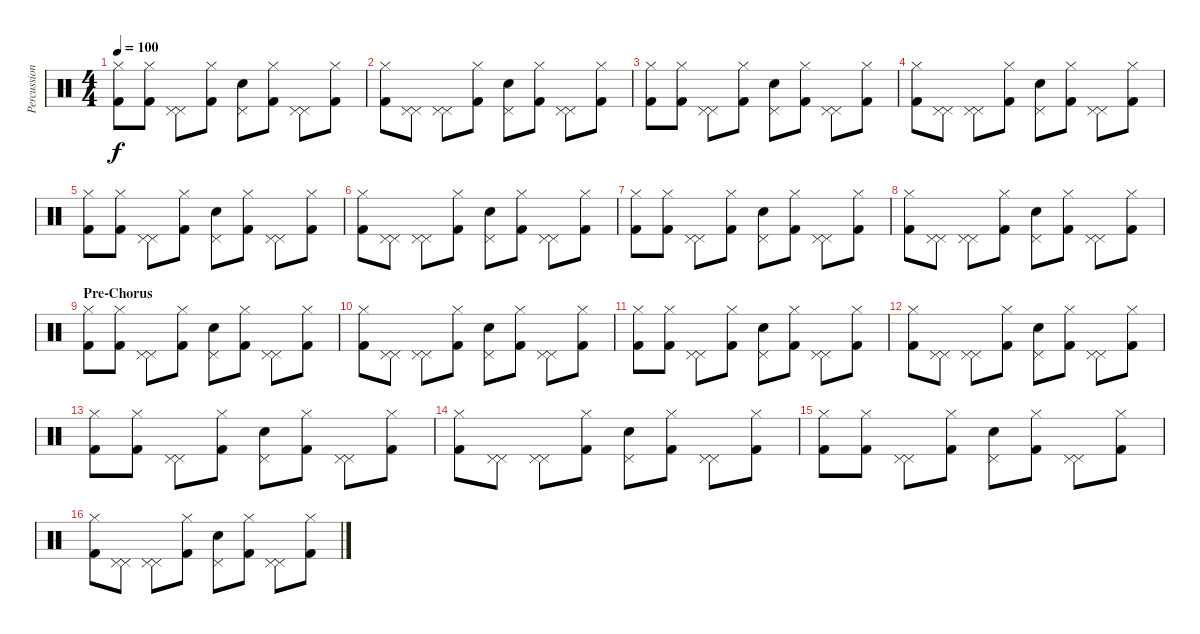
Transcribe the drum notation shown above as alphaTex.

\track ("Percussion" "Percussion") {instrument percussion}
\staff {score}
\articulation defaults
\ts (4 4)
\tempo 100
\clef neutral
\ks c
("Hi-Hat (closed)" "Kick (hit) 2").8{dy f} ("Hi-Hat (closed)" "Kick (hit) 2").8 ("Pedal Hi-Hat (hit)" "Pedal Hi-Hat (hit)").8 ("Hi-Hat (closed)" "Kick (hit) 2").8 ("Snare (hit) 2" "Pedal Hi-Hat (hit)").8 ("Hi-Hat (closed)" "Kick (hit) 2").8 ("Pedal Hi-Hat (hit)" "Pedal Hi-Hat (hit)").8 ("Hi-Hat (closed)" "Kick (hit) 2").8 |
("Hi-Hat (closed)" "Kick (hit) 2").8 ("Pedal Hi-Hat (hit)" "Pedal Hi-Hat (hit)").8 ("Pedal Hi-Hat (hit)" "Pedal Hi-Hat (hit)").8 ("Hi-Hat (closed)" "Kick (hit) 2").8 ("Snare (hit) 2" "Pedal Hi-Hat (hit)").8 ("Hi-Hat (closed)" "Kick (hit) 2").8 ("Pedal Hi-Hat (hit)" "Pedal Hi-Hat (hit)").8 ("Hi-Hat (closed)" "Kick (hit) 2").8 |
("Hi-Hat (closed)" "Kick (hit) 2").8 ("Hi-Hat (closed)" "Kick (hit) 2").8 ("Pedal Hi-Hat (hit)" "Pedal Hi-Hat (hit)").8 ("Hi-Hat (closed)" "Kick (hit) 2").8 ("Snare (hit) 2" "Pedal Hi-Hat (hit)").8 ("Hi-Hat (closed)" "Kick (hit) 2").8 ("Pedal Hi-Hat (hit)" "Pedal Hi-Hat (hit)").8 ("Hi-Hat (closed)" "Kick (hit) 2").8 |
("Hi-Hat (closed)" "Kick (hit) 2").8 ("Pedal Hi-Hat (hit)" "Pedal Hi-Hat (hit)").8 ("Pedal Hi-Hat (hit)" "Pedal Hi-Hat (hit)").8 ("Hi-Hat (closed)" "Kick (hit) 2").8 ("Snare (hit) 2" "Pedal Hi-Hat (hit)").8 ("Hi-Hat (closed)" "Kick (hit) 2").8 ("Pedal Hi-Hat (hit)" "Pedal Hi-Hat (hit)").8 ("Hi-Hat (closed)" "Kick (hit) 2").8 |
("Hi-Hat (closed)" "Kick (hit) 2").8 ("Hi-Hat (closed)" "Kick (hit) 2").8 ("Pedal Hi-Hat (hit)" "Pedal Hi-Hat (hit)").8 ("Hi-Hat (closed)" "Kick (hit) 2").8 ("Snare (hit) 2" "Pedal Hi-Hat (hit)").8 ("Hi-Hat (closed)" "Kick (hit) 2").8 ("Pedal Hi-Hat (hit)" "Pedal Hi-Hat (hit)").8 ("Hi-Hat (closed)" "Kick (hit) 2").8 |
("Hi-Hat (closed)" "Kick (hit) 2").8 ("Pedal Hi-Hat (hit)" "Pedal Hi-Hat (hit)").8 ("Pedal Hi-Hat (hit)" "Pedal Hi-Hat (hit)").8 ("Hi-Hat (closed)" "Kick (hit) 2").8 ("Snare (hit) 2" "Pedal Hi-Hat (hit)").8 ("Hi-Hat (closed)" "Kick (hit) 2").8 ("Pedal Hi-Hat (hit)" "Pedal Hi-Hat (hit)").8 ("Hi-Hat (closed)" "Kick (hit) 2").8 |
("Hi-Hat (closed)" "Kick (hit) 2").8 ("Hi-Hat (closed)" "Kick (hit) 2").8 ("Pedal Hi-Hat (hit)" "Pedal Hi-Hat (hit)").8 ("Hi-Hat (closed)" "Kick (hit) 2").8 ("Snare (hit) 2" "Pedal Hi-Hat (hit)").8 ("Hi-Hat (closed)" "Kick (hit) 2").8 ("Pedal Hi-Hat (hit)" "Pedal Hi-Hat (hit)").8 ("Hi-Hat (closed)" "Kick (hit) 2").8 |
("Hi-Hat (closed)" "Kick (hit) 2").8 ("Pedal Hi-Hat (hit)" "Pedal Hi-Hat (hit)").8 ("Pedal Hi-Hat (hit)" "Pedal Hi-Hat (hit)").8 ("Hi-Hat (closed)" "Kick (hit) 2").8 ("Snare (hit) 2" "Pedal Hi-Hat (hit)").8 ("Hi-Hat (closed)" "Kick (hit) 2").8 ("Pedal Hi-Hat (hit)" "Pedal Hi-Hat (hit)").8 ("Hi-Hat (closed)" "Kick (hit) 2").8 |
\section ("" "Pre-Chorus")
("Hi-Hat (closed)" "Kick (hit) 2").8 ("Hi-Hat (closed)" "Kick (hit) 2").8 ("Pedal Hi-Hat (hit)" "Pedal Hi-Hat (hit)").8 ("Hi-Hat (closed)" "Kick (hit) 2").8 ("Snare (hit) 2" "Pedal Hi-Hat (hit)").8 ("Hi-Hat (closed)" "Kick (hit) 2").8 ("Pedal Hi-Hat (hit)" "Pedal Hi-Hat (hit)").8 ("Hi-Hat (closed)" "Kick (hit) 2").8 |
("Hi-Hat (closed)" "Kick (hit) 2").8 ("Pedal Hi-Hat (hit)" "Pedal Hi-Hat (hit)").8 ("Pedal Hi-Hat (hit)" "Pedal Hi-Hat (hit)").8 ("Hi-Hat (closed)" "Kick (hit) 2").8 ("Snare (hit) 2" "Pedal Hi-Hat (hit)").8 ("Hi-Hat (closed)" "Kick (hit) 2").8 ("Pedal Hi-Hat (hit)" "Pedal Hi-Hat (hit)").8 ("Hi-Hat (closed)" "Kick (hit) 2").8 |
("Hi-Hat (closed)" "Kick (hit) 2").8 ("Hi-Hat (closed)" "Kick (hit) 2").8 ("Pedal Hi-Hat (hit)" "Pedal Hi-Hat (hit)").8 ("Hi-Hat (closed)" "Kick (hit) 2").8 ("Snare (hit) 2" "Pedal Hi-Hat (hit)").8 ("Hi-Hat (closed)" "Kick (hit) 2").8 ("Pedal Hi-Hat (hit)" "Pedal Hi-Hat (hit)").8 ("Hi-Hat (closed)" "Kick (hit) 2").8 |
("Hi-Hat (closed)" "Kick (hit) 2").8 ("Pedal Hi-Hat (hit)" "Pedal Hi-Hat (hit)").8 ("Pedal Hi-Hat (hit)" "Pedal Hi-Hat (hit)").8 ("Hi-Hat (closed)" "Kick (hit) 2").8 ("Snare (hit) 2" "Pedal Hi-Hat (hit)").8 ("Hi-Hat (closed)" "Kick (hit) 2").8 ("Pedal Hi-Hat (hit)" "Pedal Hi-Hat (hit)").8 ("Hi-Hat (closed)" "Kick (hit) 2").8 |
("Hi-Hat (closed)" "Kick (hit) 2").8 ("Hi-Hat (closed)" "Kick (hit) 2").8 ("Pedal Hi-Hat (hit)" "Pedal Hi-Hat (hit)").8 ("Hi-Hat (closed)" "Kick (hit) 2").8 ("Snare (hit) 2" "Pedal Hi-Hat (hit)").8 ("Hi-Hat (closed)" "Kick (hit) 2").8 ("Pedal Hi-Hat (hit)" "Pedal Hi-Hat (hit)").8 ("Hi-Hat (closed)" "Kick (hit) 2").8 |
("Hi-Hat (closed)" "Kick (hit) 2").8 ("Pedal Hi-Hat (hit)" "Pedal Hi-Hat (hit)").8 ("Pedal Hi-Hat (hit)" "Pedal Hi-Hat (hit)").8 ("Hi-Hat (closed)" "Kick (hit) 2").8 ("Snare (hit) 2" "Pedal Hi-Hat (hit)").8 ("Hi-Hat (closed)" "Kick (hit) 2").8 ("Pedal Hi-Hat (hit)" "Pedal Hi-Hat (hit)").8 ("Hi-Hat (closed)" "Kick (hit) 2").8 |
("Hi-Hat (closed)" "Kick (hit) 2").8 ("Hi-Hat (closed)" "Kick (hit) 2").8 ("Pedal Hi-Hat (hit)" "Pedal Hi-Hat (hit)").8 ("Hi-Hat (closed)" "Kick (hit) 2").8 ("Snare (hit) 2" "Pedal Hi-Hat (hit)").8 ("Hi-Hat (closed)" "Kick (hit) 2").8 ("Pedal Hi-Hat (hit)" "Pedal Hi-Hat (hit)").8 ("Hi-Hat (closed)" "Kick (hit) 2").8 |
("Hi-Hat (closed)" "Kick (hit) 2").8 ("Pedal Hi-Hat (hit)" "Pedal Hi-Hat (hit)").8 ("Pedal Hi-Hat (hit)" "Pedal Hi-Hat (hit)").8 ("Hi-Hat (closed)" "Kick (hit) 2").8 ("Snare (hit) 2" "Pedal Hi-Hat (hit)").8 ("Hi-Hat (closed)" "Kick (hit) 2").8 ("Pedal Hi-Hat (hit)" "Pedal Hi-Hat (hit)").8 ("Hi-Hat (closed)" "Kick (hit) 2").8
